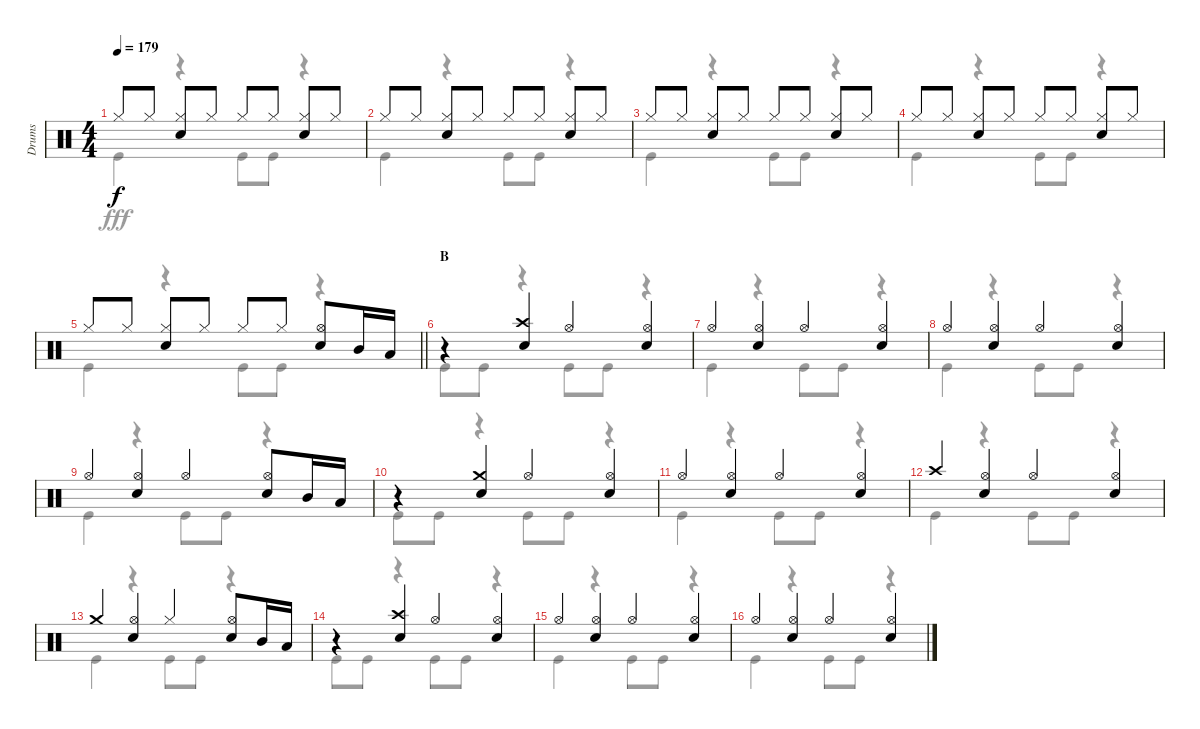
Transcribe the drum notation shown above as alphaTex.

\track ("Drums" "Drums") {instrument percussion}
\staff {score}
\articulation defaults
\voice
\ts (4 4)
\tempo 179
\clef neutral
\ks c "Hi-Hat (closed)".8{dy f} "Hi-Hat (closed)".8
("Snare (hit) 2" "Hi-Hat (closed)").8 "Hi-Hat (closed)".8 "Hi-Hat (closed)".8 "Hi-Hat (closed)".8 ("Hi-Hat (closed)" "Snare (hit) 2").8 "Hi-Hat (closed)".8 |
"Hi-Hat (closed)".8 "Hi-Hat (closed)".8 ("Snare (hit) 2" "Hi-Hat (closed)").8 "Hi-Hat (closed)".8 "Hi-Hat (closed)".8 "Hi-Hat (closed)".8 ("Hi-Hat (closed)" "Snare (hit) 2").8 "Hi-Hat (closed)".8 |
"Hi-Hat (closed)".8 "Hi-Hat (closed)".8 ("Snare (hit) 2" "Hi-Hat (closed)").8 "Hi-Hat (closed)".8 "Hi-Hat (closed)".8 "Hi-Hat (closed)".8 ("Hi-Hat (closed)" "Snare (hit) 2").8 "Hi-Hat (closed)".8 |
"Hi-Hat (closed)".8 "Hi-Hat (closed)".8 ("Snare (hit) 2" "Hi-Hat (closed)").8 "Hi-Hat (closed)".8 "Hi-Hat (closed)".8 "Hi-Hat (closed)".8 ("Hi-Hat (closed)" "Snare (hit) 2").8 "Hi-Hat (closed)".8 |
\barLineRight lightlight "Hi-Hat (closed)".8 "Hi-Hat (closed)".8
("Snare (hit) 2" "Hi-Hat (closed)").8 "Hi-Hat (closed)".8 "Hi-Hat (closed)".8 "Hi-Hat (closed)".8 ("Hi-Hat (open)" "Snare (hit) 2").8 "Mid Tom (hit)".16 "Low Tom (hit)".16 |
\section ("" "B")
r.4 ("Crash high (hit)" "Snare (hit) 2").4 "Hi-Hat (open)".4 ("Hi-Hat (open)" "Snare (hit) 2").4 |
"Hi-Hat (open)".4 ("Hi-Hat (open)" "Snare (hit) 2").4 "Hi-Hat (open)".4 ("Hi-Hat (open)" "Snare (hit) 2").4 |
"Hi-Hat (open)".4 ("Hi-Hat (open)" "Snare (hit) 2").4 "Hi-Hat (open)".4 ("Hi-Hat (open)" "Snare (hit) 2").4 |
"Hi-Hat (open)".4 ("Hi-Hat (open)" "Snare (hit) 2").4 "Hi-Hat (open)".4 ("Snare (hit) 2" "Hi-Hat (open)").8 "Mid Tom (hit)".16 "Low Tom (hit)".16 |
r.4 ("Crash medium (hit)" "Snare (hit) 2").4 "Hi-Hat (open)".4 ("Hi-Hat (open)" "Snare (hit) 2").4 |
"Hi-Hat (open)".4 ("Hi-Hat (open)" "Snare (hit) 2").4 "Hi-Hat (open)".4 ("Hi-Hat (open)" "Snare (hit) 2").4 |
"Crash high (hit)".4 ("Hi-Hat (open)" "Snare (hit) 2").4 "Hi-Hat (open)".4 ("Hi-Hat (open)" "Snare (hit) 2").4 |
"Crash medium (hit)".4 ("Hi-Hat (open)" "Snare (hit) 2").4 "Hi-Hat (closed)".4 ("Snare (hit) 2" "Hi-Hat (open)").8 "Mid Tom (hit)".16 "Low Tom (hit)".16 |
r.4 ("Crash high (hit)" "Snare (hit) 2").4 "Hi-Hat (open)".4 ("Hi-Hat (open)" "Snare (hit) 2").4 |
"Hi-Hat (open)".4 ("Hi-Hat (open)" "Snare (hit) 2").4 "Hi-Hat (open)".4 ("Hi-Hat (open)" "Snare (hit) 2").4 |
"Hi-Hat (open)".4 ("Hi-Hat (open)" "Snare (hit) 2").4 "Hi-Hat (open)".4 ("Hi-Hat (open)" "Snare (hit) 2").4
\voice
\clef neutral
\ottava regular
\simile none
\ks c "Kick (hit)".4{dy fff}
r.4 "Kick (hit)".8 "Kick (hit)".8 r.4 |
"Kick (hit)".4 r.4 "Kick (hit)".8 "Kick (hit)".8 r.4 |
"Kick (hit)".4 r.4 "Kick (hit)".8 "Kick (hit)".8 r.4 |
"Kick (hit)".4 r.4 "Kick (hit)".8 "Kick (hit)".8 r.4 |
\barLineRight lightlight "Kick (hit)".4
r.4 "Kick (hit)".8 "Kick (hit)".8 r.4 |
"Kick (hit)".8 "Kick (hit)".8 r.4 "Kick (hit)".8 "Kick (hit)".8 r.4 |
"Kick (hit)".4 r.4 "Kick (hit)".8 "Kick (hit)".8 r.4 |
"Kick (hit)".4 r.4 "Kick (hit)".8 "Kick (hit)".8 r.4 |
"Kick (hit)".4 r.4 "Kick (hit)".8 "Kick (hit)".8 r.4 |
"Kick (hit)".8 "Kick (hit)".8 r.4 "Kick (hit)".8 "Kick (hit)".8 r.4 |
"Kick (hit)".4 r.4 "Kick (hit)".8 "Kick (hit)".8 r.4 |
"Kick (hit)".4 r.4 "Kick (hit)".8 "Kick (hit)".8 r.4 |
"Kick (hit)".4 r.4 "Kick (hit)".8 "Kick (hit)".8 r.4 |
"Kick (hit)".8 "Kick (hit)".8 r.4 "Kick (hit)".8 "Kick (hit)".8 r.4 |
"Kick (hit)".4 r.4 "Kick (hit)".8 "Kick (hit)".8 r.4 |
"Kick (hit)".4 r.4 "Kick (hit)".8 "Kick (hit)".8 r.4
